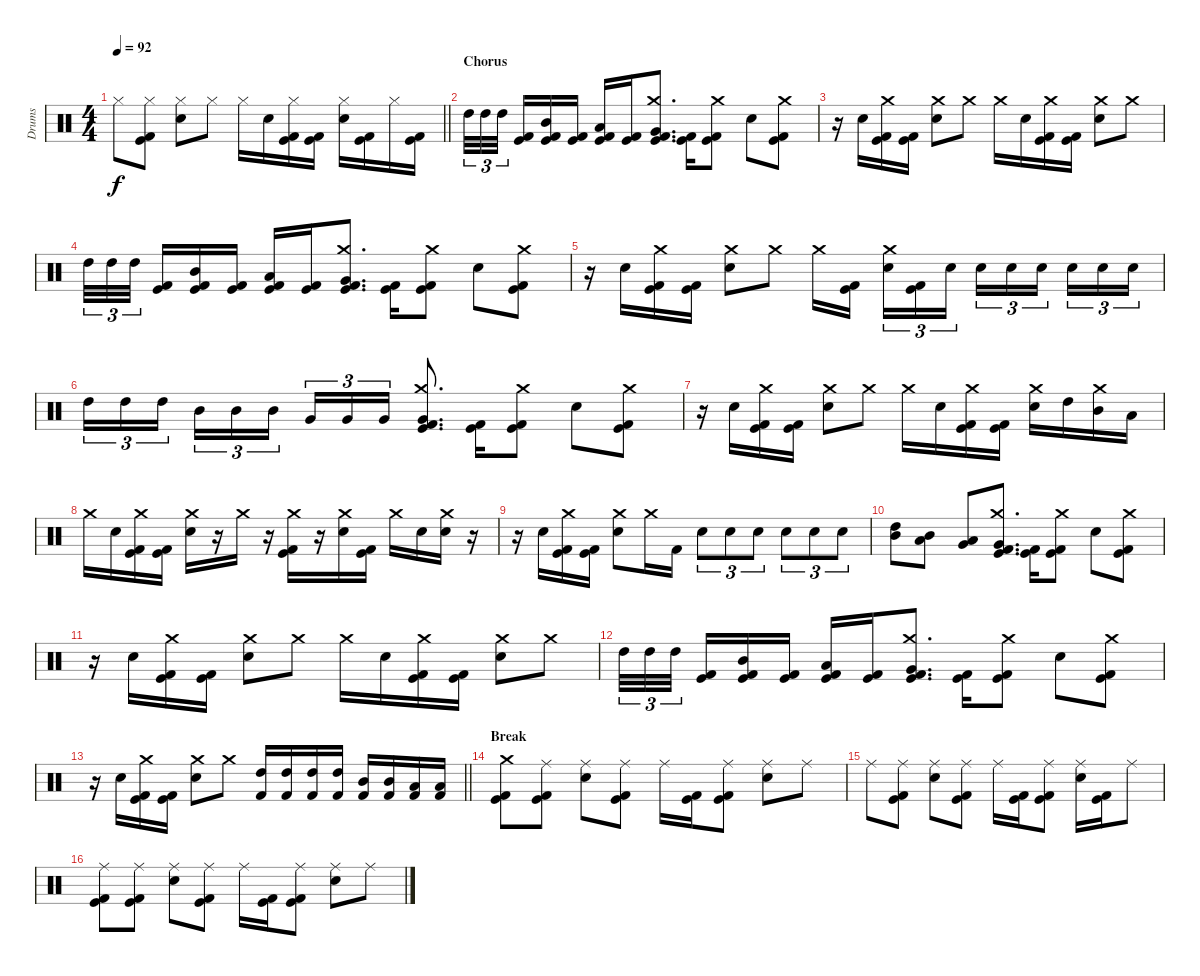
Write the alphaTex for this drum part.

\track ("Drums" "Drums") {instrument percussion}
\staff {score}
\articulation defaults
\ts (4 4)
\tempo 92
\clef neutral
\barLineRight lightlight
\ks c "Hi-Hat (closed)".8{dy f}
("Hi-Hat (closed)" "Kick (hit)" "Kick (hit) 2").8 ("Hi-Hat (closed)" "Electric Snare (hit)").8 "Hi-Hat (closed)".8 "Hi-Hat (closed)".16 "Electric Snare (hit)".16 ("Hi-Hat (closed)" "Kick (hit)" "Kick (hit) 2").16 ("Kick (hit)" "Kick (hit) 2").16 ("Hi-Hat (closed)" "Electric Snare (hit)").16 ("Kick (hit)" "Kick (hit) 2").16 "Hi-Hat (closed)".16 ("Kick (hit)" "Kick (hit) 2").16 |
\section ("" "Chorus")
"High Tom (hit)".32{tu (3 2)} "High Tom (hit)".32{tu (3 2)} "High Tom (hit)".32{tu (3 2) beam splitsecondary} ("Kick (hit)" "Kick (hit) 2").16 ("Mid Tom (hit)" "Kick (hit)" "Kick (hit) 2").16 ("Kick (hit)" "Kick (hit) 2").16 ("Low Tom (hit)" "Kick (hit)" "Kick (hit) 2").16 ("Kick (hit)" "Kick (hit) 2").16 ("Crash medium (hit)" "Very Low Tom (hit)" "Kick (hit)" "Kick (hit) 2").8{d} ("Kick (hit)" "Kick (hit) 2").16 ("Crash medium (hit)" "Kick (hit)" "Kick (hit) 2").8 "Electric Snare (hit)".8 ("Crash medium (hit)" "Kick (hit)" "Kick (hit) 2").8 |
r.16 "Electric Snare (hit)".16 ("Crash medium (hit)" "Kick (hit)" "Kick (hit) 2").16 ("Kick (hit)" "Kick (hit) 2").16 ("Crash medium (hit)" "Electric Snare (hit)").8 "Crash medium (hit)".8 "Crash medium (hit)".16 "Electric Snare (hit)".16 ("Crash medium (hit)" "Kick (hit)" "Kick (hit) 2").16 ("Kick (hit)" "Kick (hit) 2").16 ("Crash medium (hit)" "Electric Snare (hit)").8 "Crash medium (hit)".8 |
"High Tom (hit)".32{tu (3 2)} "High Tom (hit)".32{tu (3 2)} "High Tom (hit)".32{tu (3 2) beam splitsecondary} ("Kick (hit)" "Kick (hit) 2").16 ("Mid Tom (hit)" "Kick (hit)" "Kick (hit) 2").16 ("Kick (hit)" "Kick (hit) 2").16 ("Low Tom (hit)" "Kick (hit)" "Kick (hit) 2").16 ("Kick (hit)" "Kick (hit) 2").16 ("Crash medium (hit)" "Very Low Tom (hit)" "Kick (hit)" "Kick (hit) 2").8{d} ("Kick (hit)" "Kick (hit) 2").16 ("Crash medium (hit)" "Kick (hit)" "Kick (hit) 2").8 "Electric Snare (hit)".8 ("Crash medium (hit)" "Kick (hit)" "Kick (hit) 2").8 |
r.16 "Electric Snare (hit)".16 ("Crash medium (hit)" "Kick (hit)" "Kick (hit) 2").16 ("Kick (hit)" "Kick (hit) 2").16 ("Crash medium (hit)" "Electric Snare (hit)").8 "Crash medium (hit)".8 "Crash medium (hit)".16 ("Kick (hit)" "Kick (hit) 2").16{beam splitsecondary} ("Crash medium (hit)" "Electric Snare (hit)").16{tu (3 2)} ("Kick (hit)" "Kick (hit) 2").16{tu (3 2)} "Electric Snare (hit)".16{tu (3 2)} "Electric Snare (hit)".16{tu (3 2)} "Electric Snare (hit)".16{tu (3 2)} "Electric Snare (hit)".16{tu (3 2) beam splitsecondary} "Electric Snare (hit)".16{tu (3 2)} "Electric Snare (hit)".16{tu (3 2)} "Electric Snare (hit)".16{tu (3 2)} |
"High Tom (hit)".16{tu (3 2)} "High Tom (hit)".16{tu (3 2)} "High Tom (hit)".16{tu (3 2) beam splitsecondary} "Mid Tom (hit)".16{tu (3 2)} "Mid Tom (hit)".16{tu (3 2)} "Mid Tom (hit)".16{tu (3 2)} "Very Low Tom (hit)".16{tu (3 2)} "Very Low Tom (hit)".16{tu (3 2)} "Very Low Tom (hit)".16{tu (3 2)} ("Crash medium (hit)" "Very Low Tom (hit)" "Kick (hit)" "Kick (hit) 2").8{d} ("Kick (hit)" "Kick (hit) 2").16 ("Crash medium (hit)" "Kick (hit)" "Kick (hit) 2").8 "Electric Snare (hit)".8 ("Crash medium (hit)" "Kick (hit)" "Kick (hit) 2").8 |
r.16 "Electric Snare (hit)".16 ("Crash medium (hit)" "Kick (hit)" "Kick (hit) 2").16 ("Kick (hit)" "Kick (hit) 2").16 ("Crash medium (hit)" "Electric Snare (hit)").8 "Crash medium (hit)".8 "Crash medium (hit)".16 "Electric Snare (hit)".16 ("Crash medium (hit)" "Kick (hit)" "Kick (hit) 2").16 ("Kick (hit)" "Kick (hit) 2").16 ("Crash medium (hit)" "Electric Snare (hit)").16 "High Tom (hit)".16 ("Crash medium (hit)" "Mid Tom (hit)").16 "Low Tom (hit)".16 |
"Crash medium (hit)".16 "Electric Snare (hit)".16 ("Crash medium (hit)" "Kick (hit)" "Kick (hit) 2").16 ("Kick (hit)" "Kick (hit) 2").16 ("Crash medium (hit)" "Electric Snare (hit)").16 r.16 "Crash medium (hit)".16 r.16 ("Crash medium (hit)" "Kick (hit)" "Kick (hit) 2").16 r.16 ("Crash medium (hit)" "Electric Snare (hit)").16 ("Kick (hit)" "Kick (hit) 2").16 "Crash medium (hit)".16 "Electric Snare (hit)".16 ("Crash medium (hit)" "Electric Snare (hit)").16 r.16 |
r.16 "Electric Snare (hit)".16 ("Crash medium (hit)" "Kick (hit)" "Kick (hit) 2").16 ("Kick (hit)" "Kick (hit) 2").16 ("Crash medium (hit)" "Electric Snare (hit)").8 "Crash medium (hit)".16 "Kick (hit) 2".16 "Electric Snare (hit)".8{tu (3 2)} "Electric Snare (hit)".8{tu (3 2)} "Electric Snare (hit)".8{tu (3 2)} "Electric Snare (hit)".8{tu (3 2)} "Electric Snare (hit)".8{tu (3 2)} "Electric Snare (hit)".8{tu (3 2)} |
("High Tom (hit)" "Mid Tom (hit)").8 ("Mid Tom (hit)" "Low Tom (hit)").8 ("Low Tom (hit)" "Very Low Tom (hit)").8 ("Crash medium (hit)" "Very Low Tom (hit)" "Kick (hit)" "Kick (hit) 2").8{d} ("Kick (hit)" "Kick (hit) 2").16 ("Crash medium (hit)" "Kick (hit)" "Kick (hit) 2").8 "Electric Snare (hit)".8 ("Crash medium (hit)" "Kick (hit)" "Kick (hit) 2").8 |
r.16 "Electric Snare (hit)".16 ("Crash medium (hit)" "Kick (hit)" "Kick (hit) 2").16 ("Kick (hit)" "Kick (hit) 2").16 ("Crash medium (hit)" "Electric Snare (hit)").8 "Crash medium (hit)".8 "Crash medium (hit)".16 "Electric Snare (hit)".16 ("Crash medium (hit)" "Kick (hit)" "Kick (hit) 2").16 ("Kick (hit)" "Kick (hit) 2").16 ("Crash medium (hit)" "Electric Snare (hit)").8 "Crash medium (hit)".8 |
"High Tom (hit)".32{tu (3 2)} "High Tom (hit)".32{tu (3 2)} "High Tom (hit)".32{tu (3 2) beam splitsecondary} ("Kick (hit)" "Kick (hit) 2").16 ("Mid Tom (hit)" "Kick (hit)" "Kick (hit) 2").16 ("Kick (hit)" "Kick (hit) 2").16 ("Low Tom (hit)" "Kick (hit)" "Kick (hit) 2").16 ("Kick (hit)" "Kick (hit) 2").16 ("Crash medium (hit)" "Very Low Tom (hit)" "Kick (hit)" "Kick (hit) 2").8{d} ("Kick (hit)" "Kick (hit) 2").16 ("Crash medium (hit)" "Kick (hit)" "Kick (hit) 2").8 "Electric Snare (hit)".8 ("Crash medium (hit)" "Kick (hit)" "Kick (hit) 2").8 |
\barLineRight lightlight
r.16 "Electric Snare (hit)".16 ("Crash medium (hit)" "Kick (hit)" "Kick (hit) 2").16 ("Kick (hit)" "Kick (hit) 2").16 ("Crash medium (hit)" "Electric Snare (hit)").8 "Crash medium (hit)".8 ("High Tom (hit)" "Kick (hit) 2").16 ("High Tom (hit)" "Kick (hit) 2").16 ("High Tom (hit)" "Kick (hit) 2").16 ("High Tom (hit)" "Kick (hit) 2").16 ("Mid Tom (hit)" "Kick (hit) 2").16 ("Mid Tom (hit)" "Kick (hit) 2").16 ("Low Tom (hit)" "Kick (hit) 2").16 ("Low Tom (hit)" "Kick (hit) 2").16 |
\section ("" "Break")
("Crash medium (hit)" "Kick (hit)" "Kick (hit) 2").8 ("Ride (middle)" "Kick (hit)" "Kick (hit) 2").8 ("Ride (middle)" "Electric Snare (hit)").8 ("Ride (middle)" "Kick (hit)" "Kick (hit) 2").8 "Ride (middle)".16 ("Kick (hit)" "Kick (hit) 2").16 ("Ride (middle)" "Kick (hit)" "Kick (hit) 2").8 ("Ride (middle)" "Electric Snare (hit)").8 "Ride (middle)".8 |
"Ride (middle)".8 ("Ride (middle)" "Kick (hit)" "Kick (hit) 2").8 ("Ride (middle)" "Electric Snare (hit)").8 ("Ride (middle)" "Kick (hit)" "Kick (hit) 2").8 "Ride (middle)".16 ("Kick (hit)" "Kick (hit) 2").16 ("Ride (middle)" "Kick (hit)" "Kick (hit) 2").8 ("Ride (middle)" "Electric Snare (hit)").16 ("Kick (hit)" "Kick (hit) 2").16 "Ride (middle)".8 |
("Ride (middle)" "Kick (hit)" "Kick (hit) 2").8 ("Ride (middle)" "Kick (hit)" "Kick (hit) 2").8 ("Ride (middle)" "Electric Snare (hit)").8 ("Ride (middle)" "Kick (hit)" "Kick (hit) 2").8 "Ride (middle)".16 ("Kick (hit)" "Kick (hit) 2").16 ("Ride (middle)" "Kick (hit)" "Kick (hit) 2").8 ("Ride (middle)" "Electric Snare (hit)").8 "Ride (middle)".8
